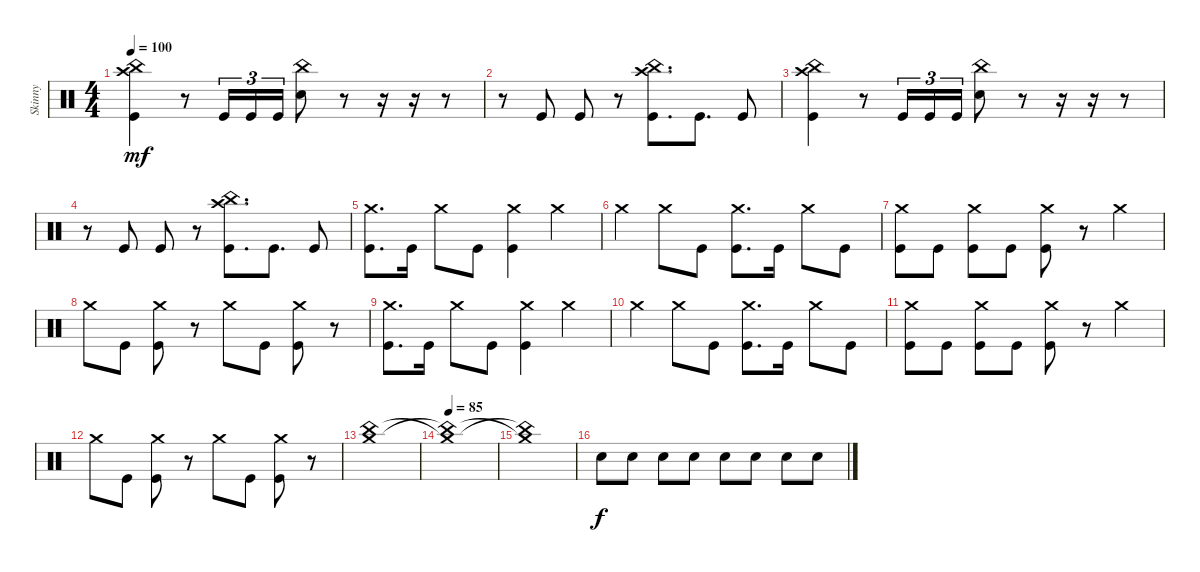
\track ("Skinny" "Skinny") {instrument percussion}
\staff {score}
\articulation defaults
\ts (4 4)
\tempo 100
\clef neutral
\ks c
("China (hit)" "Kick (hit)" "Crash high (hit)").4{dy mf} r.8 "Kick (hit)".16{tu (3 2)} "Kick (hit)".16{tu (3 2)} "Kick (hit)".16{tu (3 2)} ("Snare (hit) 2" "China (hit)").8 r.8 r.16 r.16 r.8 |
r.8 "Kick (hit)".8 "Kick (hit)".8 r.8 ("Kick (hit)" "China (hit)" "Crash high (hit)").8{d} "Kick (hit)".8{d} "Kick (hit)".8 |
("China (hit)" "Kick (hit)" "Crash high (hit)").4 r.8 "Kick (hit)".16{tu (3 2)} "Kick (hit)".16{tu (3 2)} "Kick (hit)".16{tu (3 2)} ("Snare (hit) 2" "China (hit)").8 r.8 r.16 r.16 r.8 |
r.8 "Kick (hit)".8 "Kick (hit)".8 r.8 ("Kick (hit)" "China (hit)" "Crash high (hit)").8{d} "Kick (hit)".8{d} "Kick (hit)".8 |
("Crash medium (hit)" "Kick (hit)").8{d} "Kick (hit)".16 "Crash medium (hit)".8 "Kick (hit)".8 ("Kick (hit)" "Crash medium (hit)").4 "Crash medium (hit)".4 |
"Crash medium (hit)".4 "Crash medium (hit)".8 "Kick (hit)".8 ("Kick (hit)" "Crash medium (hit)").8{d} "Kick (hit)".16 "Crash medium (hit)".8 "Kick (hit)".8 |
("Kick (hit)" "Crash medium (hit)").8 "Kick (hit)".8 ("Kick (hit)" "Crash medium (hit)").8 "Kick (hit)".8 ("Kick (hit)" "Crash medium (hit)").8 r.8 "Crash medium (hit)".4 |
"Crash medium (hit)".8 "Kick (hit)".8 ("Kick (hit)" "Crash medium (hit)").8 r.8 "Crash medium (hit)".8 "Kick (hit)".8 ("Kick (hit)" "Crash medium (hit)").8 r.8 |
("Crash medium (hit)" "Kick (hit)").8{d} "Kick (hit)".16 "Crash medium (hit)".8 "Kick (hit)".8 ("Kick (hit)" "Crash medium (hit)").4 "Crash medium (hit)".4 |
"Crash medium (hit)".4 "Crash medium (hit)".8 "Kick (hit)".8 ("Kick (hit)" "Crash medium (hit)").8{d} "Kick (hit)".16 "Crash medium (hit)".8 "Kick (hit)".8 |
("Kick (hit)" "Crash medium (hit)").8 "Kick (hit)".8 ("Kick (hit)" "Crash medium (hit)").8 "Kick (hit)".8 ("Kick (hit)" "Crash medium (hit)").8 r.8 "Crash medium (hit)".4 |
"Crash medium (hit)".8 "Kick (hit)".8 ("Kick (hit)" "Crash medium (hit)").8 r.8 "Crash medium (hit)".8 "Kick (hit)".8 ("Kick (hit)" "Crash medium (hit)").8 r.8 |
("Crash medium (hit)" "China (hit)").1 |
\tempo 85
("China (hit)"{t} "Crash medium (hit)"{t}).1 |
("Crash medium (hit)"{t} "China (hit)"{t}).1 |
"Snare (hit) 2".8{dy f} "Snare (hit) 2".8 "Snare (hit) 2".8 "Snare (hit) 2".8 "Snare (hit) 2".8 "Snare (hit) 2".8 "Snare (hit) 2".8{volume 16} "Snare (hit) 2".8
